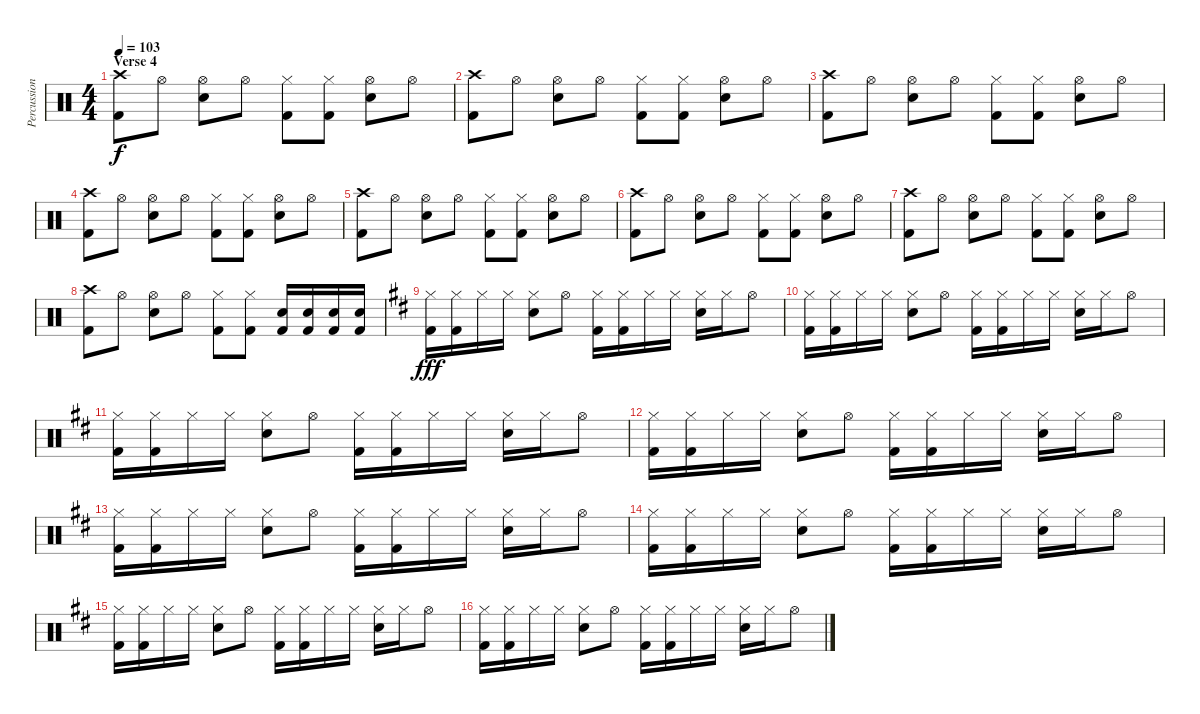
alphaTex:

\track ("Percussion" "Percussion") {instrument percussion}
\staff {score}
\articulation defaults
\ts (4 4)
\section ("" "Verse 4")
\tempo 103
\clef neutral
\ks c
("Crash high (hit)" "Kick (hit) 2").8{dy f} "Hi-Hat (open)".8 ("Hi-Hat (open)" "Snare (hit) 2").8 "Hi-Hat (open)".8 ("Hi-Hat (closed)" "Kick (hit) 2").8 ("Hi-Hat (closed)" "Kick (hit) 2").8 ("Hi-Hat (open)" "Snare (hit) 2").8 "Hi-Hat (open)".8 |
("Crash high (hit)" "Kick (hit) 2").8 "Hi-Hat (open)".8 ("Hi-Hat (open)" "Snare (hit) 2").8 "Hi-Hat (open)".8 ("Hi-Hat (closed)" "Kick (hit) 2").8 ("Hi-Hat (closed)" "Kick (hit) 2").8 ("Hi-Hat (open)" "Snare (hit) 2").8 "Hi-Hat (open)".8 |
("Crash high (hit)" "Kick (hit) 2").8 "Hi-Hat (open)".8 ("Hi-Hat (open)" "Snare (hit) 2").8 "Hi-Hat (open)".8 ("Hi-Hat (closed)" "Kick (hit) 2").8 ("Hi-Hat (closed)" "Kick (hit) 2").8 ("Hi-Hat (open)" "Snare (hit) 2").8 "Hi-Hat (open)".8 |
("Crash high (hit)" "Kick (hit) 2").8 "Hi-Hat (open)".8 ("Hi-Hat (open)" "Snare (hit) 2").8 "Hi-Hat (open)".8 ("Hi-Hat (closed)" "Kick (hit) 2").8 ("Hi-Hat (closed)" "Kick (hit) 2").8 ("Hi-Hat (open)" "Snare (hit) 2").8 "Hi-Hat (open)".8 |
("Crash high (hit)" "Kick (hit) 2").8 "Hi-Hat (open)".8 ("Hi-Hat (open)" "Snare (hit) 2").8 "Hi-Hat (open)".8 ("Hi-Hat (closed)" "Kick (hit) 2").8 ("Hi-Hat (closed)" "Kick (hit) 2").8 ("Hi-Hat (open)" "Snare (hit) 2").8 "Hi-Hat (open)".8 |
("Crash high (hit)" "Kick (hit) 2").8 "Hi-Hat (open)".8 ("Hi-Hat (open)" "Snare (hit) 2").8 "Hi-Hat (open)".8 ("Hi-Hat (closed)" "Kick (hit) 2").8 ("Hi-Hat (closed)" "Kick (hit) 2").8 ("Hi-Hat (open)" "Snare (hit) 2").8 "Hi-Hat (open)".8 |
("Crash high (hit)" "Kick (hit) 2").8 "Hi-Hat (open)".8 ("Hi-Hat (open)" "Snare (hit) 2").8 "Hi-Hat (open)".8 ("Hi-Hat (closed)" "Kick (hit) 2").8 ("Hi-Hat (closed)" "Kick (hit) 2").8 ("Hi-Hat (open)" "Snare (hit) 2").8 "Hi-Hat (open)".8 |
("Crash high (hit)" "Kick (hit) 2").8 "Hi-Hat (open)".8 ("Hi-Hat (open)" "Snare (hit) 2").8 "Hi-Hat (open)".8 ("Hi-Hat (closed)" "Kick (hit) 2").8 ("Hi-Hat (closed)" "Kick (hit) 2").8 ("Snare (hit) 2" "Kick (hit) 2").16 ("Snare (hit) 2" "Kick (hit) 2").16 ("Snare (hit) 2" "Kick (hit) 2").16 ("Snare (hit) 2" "Kick (hit) 2").16 |
\ks d
("Hi-Hat (closed)" "Kick (hit) 2").16{dy fff} ("Hi-Hat (closed)" "Kick (hit) 2").16 "Hi-Hat (closed)".16 "Hi-Hat (closed)".16 ("Electric Snare (hit)" "Hi-Hat (closed)").8 "Hi-Hat (open)".8 ("Hi-Hat (closed)" "Kick (hit) 2").16 ("Hi-Hat (closed)" "Kick (hit) 2").16 "Hi-Hat (closed)".16 "Hi-Hat (closed)".16 ("Electric Snare (hit)" "Hi-Hat (closed)").16 "Hi-Hat (closed)".16 "Hi-Hat (open)".8 |
("Hi-Hat (closed)" "Kick (hit) 2").16 ("Hi-Hat (closed)" "Kick (hit) 2").16 "Hi-Hat (closed)".16 "Hi-Hat (closed)".16 ("Electric Snare (hit)" "Hi-Hat (closed)").8 "Hi-Hat (open)".8 ("Hi-Hat (closed)" "Kick (hit) 2").16 ("Hi-Hat (closed)" "Kick (hit) 2").16 "Hi-Hat (closed)".16 "Hi-Hat (closed)".16 ("Electric Snare (hit)" "Hi-Hat (closed)").16 "Hi-Hat (closed)".16 "Hi-Hat (open)".8 |
("Hi-Hat (closed)" "Kick (hit) 2").16 ("Hi-Hat (closed)" "Kick (hit) 2").16 "Hi-Hat (closed)".16 "Hi-Hat (closed)".16 ("Electric Snare (hit)" "Hi-Hat (closed)").8 "Hi-Hat (open)".8 ("Hi-Hat (closed)" "Kick (hit) 2").16 ("Hi-Hat (closed)" "Kick (hit) 2").16 "Hi-Hat (closed)".16 "Hi-Hat (closed)".16 ("Electric Snare (hit)" "Hi-Hat (closed)").16 "Hi-Hat (closed)".16 "Hi-Hat (open)".8 |
("Hi-Hat (closed)" "Kick (hit) 2").16 ("Hi-Hat (closed)" "Kick (hit) 2").16 "Hi-Hat (closed)".16 "Hi-Hat (closed)".16 ("Electric Snare (hit)" "Hi-Hat (closed)").8 "Hi-Hat (open)".8 ("Hi-Hat (closed)" "Kick (hit) 2").16 ("Hi-Hat (closed)" "Kick (hit) 2").16 "Hi-Hat (closed)".16 "Hi-Hat (closed)".16 ("Electric Snare (hit)" "Hi-Hat (closed)").16 "Hi-Hat (closed)".16 "Hi-Hat (open)".8 |
("Hi-Hat (closed)" "Kick (hit) 2").16 ("Hi-Hat (closed)" "Kick (hit) 2").16 "Hi-Hat (closed)".16 "Hi-Hat (closed)".16 ("Electric Snare (hit)" "Hi-Hat (closed)").8 "Hi-Hat (open)".8 ("Hi-Hat (closed)" "Kick (hit) 2").16 ("Hi-Hat (closed)" "Kick (hit) 2").16 "Hi-Hat (closed)".16 "Hi-Hat (closed)".16 ("Electric Snare (hit)" "Hi-Hat (closed)").16 "Hi-Hat (closed)".16 "Hi-Hat (open)".8 |
("Hi-Hat (closed)" "Kick (hit) 2").16 ("Hi-Hat (closed)" "Kick (hit) 2").16 "Hi-Hat (closed)".16 "Hi-Hat (closed)".16 ("Electric Snare (hit)" "Hi-Hat (closed)").8 "Hi-Hat (open)".8 ("Hi-Hat (closed)" "Kick (hit) 2").16 ("Hi-Hat (closed)" "Kick (hit) 2").16 "Hi-Hat (closed)".16 "Hi-Hat (closed)".16 ("Electric Snare (hit)" "Hi-Hat (closed)").16 "Hi-Hat (closed)".16 "Hi-Hat (open)".8 |
("Hi-Hat (closed)" "Kick (hit) 2").16 ("Hi-Hat (closed)" "Kick (hit) 2").16 "Hi-Hat (closed)".16 "Hi-Hat (closed)".16 ("Electric Snare (hit)" "Hi-Hat (closed)").8 "Hi-Hat (open)".8 ("Hi-Hat (closed)" "Kick (hit) 2").16 ("Hi-Hat (closed)" "Kick (hit) 2").16 "Hi-Hat (closed)".16 "Hi-Hat (closed)".16 ("Electric Snare (hit)" "Hi-Hat (closed)").16 "Hi-Hat (closed)".16 "Hi-Hat (open)".8 |
("Hi-Hat (closed)" "Kick (hit) 2").16 ("Hi-Hat (closed)" "Kick (hit) 2").16 "Hi-Hat (closed)".16 "Hi-Hat (closed)".16 ("Electric Snare (hit)" "Hi-Hat (closed)").8 "Hi-Hat (open)".8 ("Hi-Hat (closed)" "Kick (hit) 2").16 ("Hi-Hat (closed)" "Kick (hit) 2").16 "Hi-Hat (closed)".16 "Hi-Hat (closed)".16 ("Electric Snare (hit)" "Hi-Hat (closed)").16 "Hi-Hat (closed)".16 "Hi-Hat (open)".8
